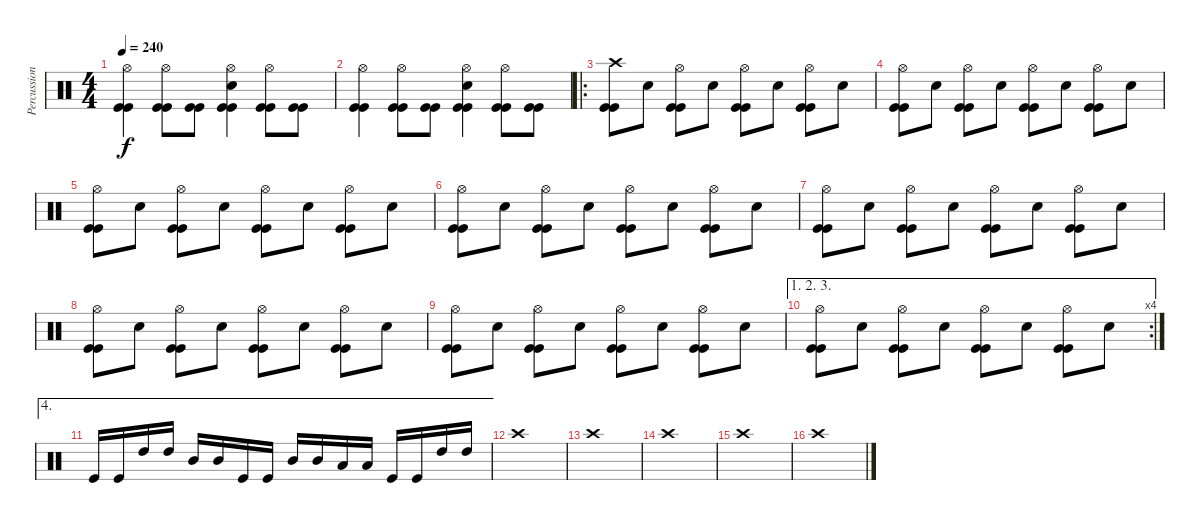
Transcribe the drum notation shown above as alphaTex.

\track ("Percussion" "Percussion") {instrument percussion}
\staff {score}
\articulation defaults
\ts (4 4)
\tempo 240
\clef neutral
\ks c
("Hi-Hat (open)" "Kick (hit)" "Kick (hit)").4{dy f} ("Hi-Hat (open)" "Kick (hit)" "Kick (hit)").8 ("Kick (hit)" "Kick (hit)").8 ("Hi-Hat (open)" "Snare (hit) 2" "Kick (hit)" "Kick (hit)").4 ("Hi-Hat (open)" "Kick (hit)" "Kick (hit)").8 ("Kick (hit)" "Kick (hit)").8 |
("Hi-Hat (open)" "Kick (hit)" "Kick (hit)").4 ("Hi-Hat (open)" "Kick (hit)" "Kick (hit)").8 ("Kick (hit)" "Kick (hit)").8 ("Hi-Hat (open)" "Snare (hit) 2" "Kick (hit)" "Kick (hit)").4 ("Hi-Hat (open)" "Kick (hit)" "Kick (hit)").8 ("Kick (hit)" "Kick (hit)").8 |
\ro
("Crash high (hit)" "Kick (hit)" "Kick (hit)").8 "Snare (hit) 2".8 ("Hi-Hat (open)" "Kick (hit)" "Kick (hit)").8 "Snare (hit) 2".8 ("Hi-Hat (open)" "Kick (hit)" "Kick (hit)").8 "Snare (hit) 2".8 ("Hi-Hat (open)" "Kick (hit)" "Kick (hit)").8 "Snare (hit) 2".8 |
("Hi-Hat (open)" "Kick (hit)" "Kick (hit)").8 "Snare (hit) 2".8 ("Hi-Hat (open)" "Kick (hit)" "Kick (hit)").8 "Snare (hit) 2".8 ("Hi-Hat (open)" "Kick (hit)" "Kick (hit)").8 "Snare (hit) 2".8 ("Hi-Hat (open)" "Kick (hit)" "Kick (hit)").8 "Snare (hit) 2".8 |
("Hi-Hat (open)" "Kick (hit)" "Kick (hit)").8 "Snare (hit) 2".8 ("Hi-Hat (open)" "Kick (hit)" "Kick (hit)").8 "Snare (hit) 2".8 ("Hi-Hat (open)" "Kick (hit)" "Kick (hit)").8 "Snare (hit) 2".8 ("Hi-Hat (open)" "Kick (hit)" "Kick (hit)").8 "Snare (hit) 2".8 |
("Hi-Hat (open)" "Kick (hit)" "Kick (hit)").8 "Snare (hit) 2".8 ("Hi-Hat (open)" "Kick (hit)" "Kick (hit)").8 "Snare (hit) 2".8 ("Hi-Hat (open)" "Kick (hit)" "Kick (hit)").8 "Snare (hit) 2".8 ("Hi-Hat (open)" "Kick (hit)" "Kick (hit)").8 "Snare (hit) 2".8 |
("Hi-Hat (open)" "Kick (hit)" "Kick (hit)").8 "Snare (hit) 2".8 ("Hi-Hat (open)" "Kick (hit)" "Kick (hit)").8 "Snare (hit) 2".8 ("Hi-Hat (open)" "Kick (hit)" "Kick (hit)").8 "Snare (hit) 2".8 ("Hi-Hat (open)" "Kick (hit)" "Kick (hit)").8 "Snare (hit) 2".8 |
("Hi-Hat (open)" "Kick (hit)" "Kick (hit)").8 "Snare (hit) 2".8 ("Hi-Hat (open)" "Kick (hit)" "Kick (hit)").8 "Snare (hit) 2".8 ("Hi-Hat (open)" "Kick (hit)" "Kick (hit)").8 "Snare (hit) 2".8 ("Hi-Hat (open)" "Kick (hit)" "Kick (hit)").8 "Snare (hit) 2".8 |
("Hi-Hat (open)" "Kick (hit)" "Kick (hit)").8 "Snare (hit) 2".8 ("Hi-Hat (open)" "Kick (hit)" "Kick (hit)").8 "Snare (hit) 2".8 ("Hi-Hat (open)" "Kick (hit)" "Kick (hit)").8 "Snare (hit) 2".8 ("Hi-Hat (open)" "Kick (hit)" "Kick (hit)").8 "Snare (hit) 2".8 |
\ae (1 2 3)
\rc 4
("Hi-Hat (open)" "Kick (hit)" "Kick (hit)").8 "Snare (hit) 2".8 ("Hi-Hat (open)" "Kick (hit)" "Kick (hit)").8 "Snare (hit) 2".8 ("Hi-Hat (open)" "Kick (hit)" "Kick (hit)").8 "Snare (hit) 2".8 ("Hi-Hat (open)" "Kick (hit)" "Kick (hit)").8 "Snare (hit) 2".8 |
\ae 4 "Kick (hit)".16 "Kick (hit)".16 "High Tom (hit)".16 "High Tom (hit)".16 "Mid Tom (hit)".16 "Mid Tom (hit)".16 "Kick (hit)".16 "Kick (hit)".16 "Mid Tom (hit)".16 "Mid Tom (hit)".16 "Low Tom (hit)".16 "Low Tom (hit)".16 "Kick (hit)".16 "Kick (hit)".16 "High Tom (hit)".16 "High Tom (hit)".16
|
"Crash high (hit)".1 |
"Crash high (hit)".1 |
"Crash high (hit)".1 |
"Crash high (hit)".1 |
"Crash high (hit)".1
